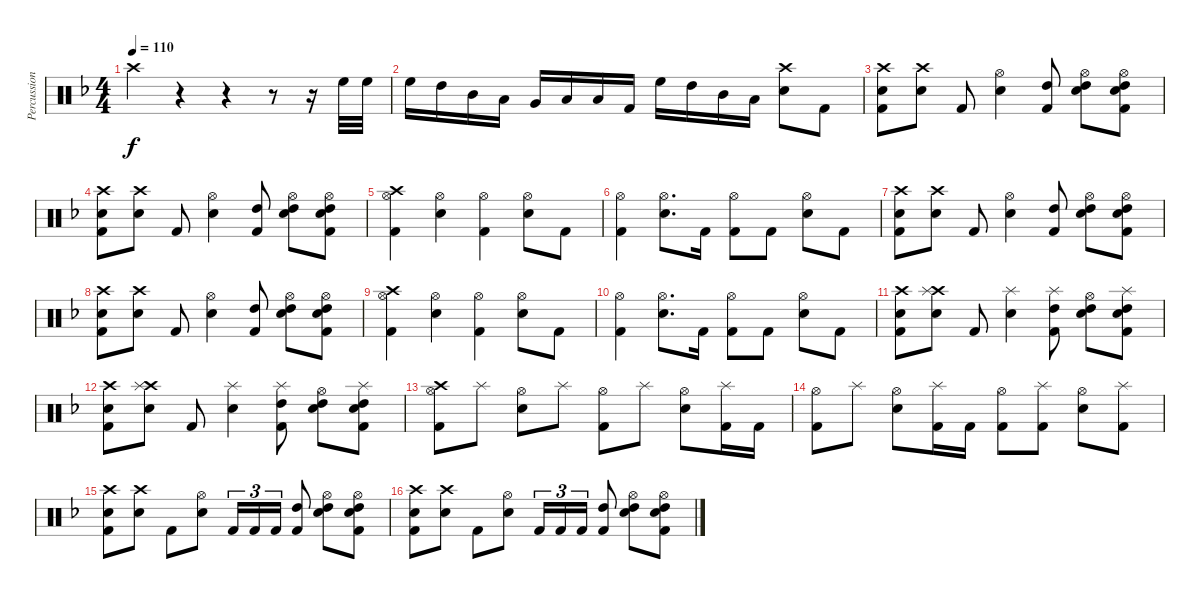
\track ("Percussion" "Percussion") {instrument percussion}
\staff {score}
\articulation defaults
\ts (4 4)
\tempo 110
\clef neutral
\ks dminor "Crash high (hit)".4{dy f}
r.4 r.4 r.8 r.16 "High Floor Tom (hit)".32 "High Floor Tom (hit)".32 |
"High Floor Tom (hit)".16 "High Tom (hit)".16 "Mid Tom (hit)".16 "Low Tom (hit)".16 "Very Low Tom (hit)".16 "Low Floor Tom (hit)".16 "Low Floor Tom (hit)".16 "Kick (hit) 2".16 "High Floor Tom (hit)".16 "High Tom (hit)".16 "Mid Tom (hit)".16 "Low Tom (hit)".16 ("Crash high (hit)" "Electric Snare (hit)").8 "Kick (hit) 2".8 |
("Crash high (hit)" "Electric Snare (hit)" "Kick (hit) 2").8 ("Crash high (hit)" "Electric Snare (hit)").8 "Kick (hit) 2".8 ("Hi-Hat (open)" "Electric Snare (hit)").4 ("High Tom (hit)" "Kick (hit) 2").8 ("Hi-Hat (open)" "Electric Snare (hit)" "High Tom (hit)").8 ("Hi-Hat (open)" "Electric Snare (hit)" "High Tom (hit)" "Kick (hit) 2").8 |
("Crash high (hit)" "Electric Snare (hit)" "Kick (hit) 2").8 ("Crash high (hit)" "Electric Snare (hit)").8 "Kick (hit) 2".8 ("Hi-Hat (open)" "Electric Snare (hit)").4 ("High Tom (hit)" "Kick (hit) 2").8 ("Hi-Hat (open)" "Electric Snare (hit)" "High Tom (hit)").8 ("Hi-Hat (open)" "Electric Snare (hit)" "High Tom (hit)" "Kick (hit) 2").8 |
("Crash high (hit)" "Hi-Hat (open)" "Kick (hit) 2").4 ("Hi-Hat (open)" "Electric Snare (hit)").4 ("Hi-Hat (open)" "Kick (hit) 2").4 ("Hi-Hat (open)" "Electric Snare (hit)").8 "Kick (hit) 2".8 |
("Hi-Hat (open)" "Kick (hit) 2").4 ("Hi-Hat (open)" "Electric Snare (hit)").8{d} "Kick (hit) 2".16 ("Hi-Hat (open)" "Kick (hit) 2").8 "Kick (hit) 2".8 ("Hi-Hat (open)" "Electric Snare (hit)").8 "Kick (hit) 2".8 |
("Crash high (hit)" "Electric Snare (hit)" "Kick (hit) 2").8 ("Crash high (hit)" "Electric Snare (hit)").8 "Kick (hit) 2".8 ("Hi-Hat (open)" "Electric Snare (hit)").4 ("High Tom (hit)" "Kick (hit) 2").8 ("Hi-Hat (open)" "Electric Snare (hit)" "High Tom (hit)").8 ("Hi-Hat (open)" "Electric Snare (hit)" "High Tom (hit)" "Kick (hit) 2").8 |
("Crash high (hit)" "Electric Snare (hit)" "Kick (hit) 2").8 ("Crash high (hit)" "Electric Snare (hit)").8 "Kick (hit) 2".8 ("Hi-Hat (open)" "Electric Snare (hit)").4 ("High Tom (hit)" "Kick (hit) 2").8 ("Hi-Hat (open)" "Electric Snare (hit)" "High Tom (hit)").8 ("Hi-Hat (open)" "Electric Snare (hit)" "High Tom (hit)" "Kick (hit) 2").8 |
("Crash high (hit)" "Hi-Hat (open)" "Kick (hit) 2").4 ("Hi-Hat (open)" "Electric Snare (hit)").4 ("Hi-Hat (open)" "Kick (hit) 2").4 ("Hi-Hat (open)" "Electric Snare (hit)").8 "Kick (hit) 2".8 |
("Hi-Hat (open)" "Kick (hit) 2").4 ("Hi-Hat (open)" "Electric Snare (hit)").8{d} "Kick (hit) 2".16 ("Hi-Hat (open)" "Kick (hit) 2").8 "Kick (hit) 2".8 ("Hi-Hat (open)" "Electric Snare (hit)").8 "Kick (hit) 2".8 |
("Crash high (hit)" "Electric Snare (hit)" "Kick (hit) 2").8 ("Crash high (hit)" "Splash (hit)" "Electric Snare (hit)").8 "Kick (hit) 2".8 ("Splash (hit)" "Electric Snare (hit)").4 ("Splash (hit)" "High Tom (hit)" "Kick (hit) 2").8 ("Hi-Hat (open)" "Electric Snare (hit)" "High Tom (hit)").8 ("Splash (hit)" "Electric Snare (hit)" "High Tom (hit)" "Kick (hit) 2").8 |
("Crash high (hit)" "Electric Snare (hit)" "Kick (hit) 2").8 ("Crash high (hit)" "Splash (hit)" "Electric Snare (hit)").8 "Kick (hit) 2".8 ("Splash (hit)" "Electric Snare (hit)").4 ("Splash (hit)" "High Tom (hit)" "Kick (hit) 2").8 ("Hi-Hat (open)" "Electric Snare (hit)" "High Tom (hit)").8 ("Splash (hit)" "Electric Snare (hit)" "High Tom (hit)" "Kick (hit) 2").8 |
("Crash high (hit)" "Hi-Hat (open)" "Kick (hit) 2").8 "Splash (hit)".8 ("Hi-Hat (open)" "Electric Snare (hit)").8 "Splash (hit)".8 ("Hi-Hat (open)" "Kick (hit) 2").8 "Splash (hit)".8 ("Hi-Hat (open)" "Electric Snare (hit)").8 ("Splash (hit)" "Kick (hit) 2").16 "Kick (hit) 2".16 |
("Hi-Hat (open)" "Kick (hit) 2").8 "Splash (hit)".8 ("Hi-Hat (open)" "Electric Snare (hit)").8 ("Splash (hit)" "Kick (hit) 2").16 "Kick (hit) 2".16 ("Hi-Hat (open)" "Kick (hit) 2").8 ("Splash (hit)" "Kick (hit) 2").8 ("Hi-Hat (open)" "Electric Snare (hit)").8 ("Splash (hit)" "Kick (hit) 2").8 |
("Crash high (hit)" "Electric Snare (hit)" "Kick (hit) 2").8 ("Crash high (hit)" "Electric Snare (hit)").8 "Kick (hit) 2".8 ("Hi-Hat (open)" "Electric Snare (hit)").8 "Kick (hit) 2".16{tu (3 2)} "Kick (hit) 2".16{tu (3 2)} "Kick (hit) 2".16{tu (3 2)} ("High Tom (hit)" "Kick (hit) 2").8 ("Hi-Hat (open)" "Electric Snare (hit)" "High Tom (hit)").8 ("Hi-Hat (open)" "Electric Snare (hit)" "High Tom (hit)" "Kick (hit) 2").8 |
("Crash high (hit)" "Electric Snare (hit)" "Kick (hit) 2").8 ("Crash high (hit)" "Electric Snare (hit)").8 "Kick (hit) 2".8 ("Hi-Hat (open)" "Electric Snare (hit)").8 "Kick (hit) 2".16{tu (3 2)} "Kick (hit) 2".16{tu (3 2)} "Kick (hit) 2".16{tu (3 2)} ("High Tom (hit)" "Kick (hit) 2").8 ("Hi-Hat (open)" "Electric Snare (hit)" "High Tom (hit)").8 ("Hi-Hat (open)" "Electric Snare (hit)" "High Tom (hit)" "Kick (hit) 2").8
